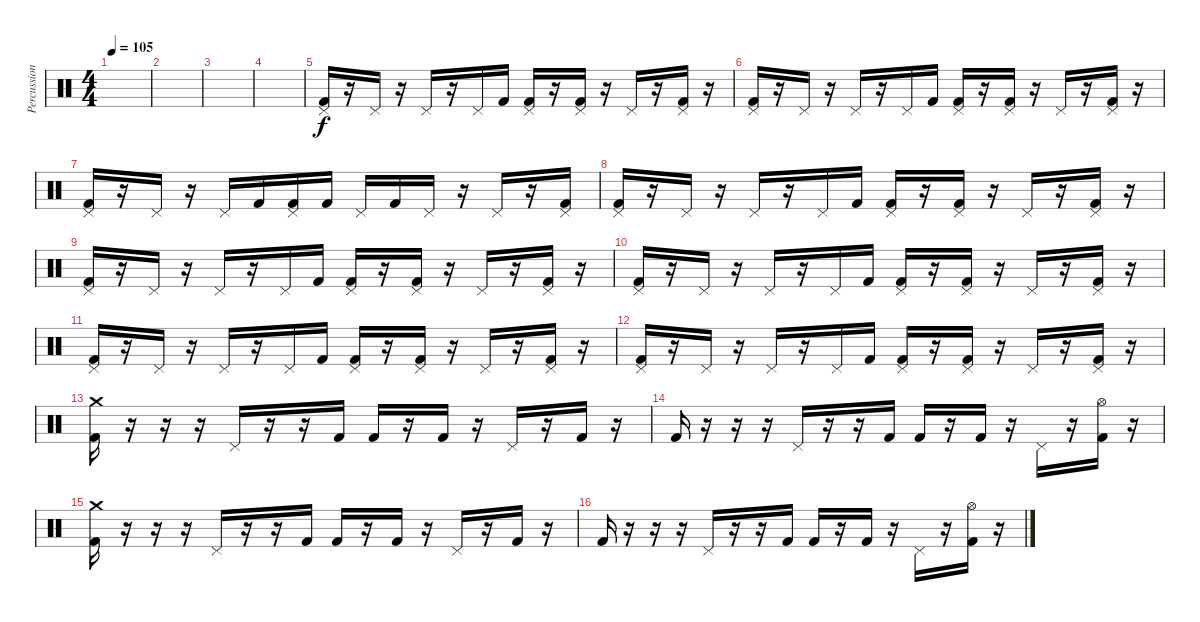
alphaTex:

\track ("Percussions" "Percussion") {instrument percussion}
\staff {score}
\articulation defaults
\ts (4 4)
\tempo 105
\clef neutral
\ks c
|
|
|
|
("Pedal Hi-Hat (hit)" "Kick (hit) 2").16 r.16 "Pedal Hi-Hat (hit)".16 r.16 "Pedal Hi-Hat (hit)".16 r.16 "Pedal Hi-Hat (hit)".16 "Kick (hit) 2".16 ("Pedal Hi-Hat (hit)" "Kick (hit) 2").16 r.16 ("Pedal Hi-Hat (hit)" "Kick (hit) 2").16 r.16 "Pedal Hi-Hat (hit)".16 r.16 ("Pedal Hi-Hat (hit)" "Kick (hit) 2").16 r.16 |
("Pedal Hi-Hat (hit)" "Kick (hit) 2").16 r.16 "Pedal Hi-Hat (hit)".16 r.16 "Pedal Hi-Hat (hit)".16 r.16 "Pedal Hi-Hat (hit)".16 "Kick (hit) 2".16 ("Pedal Hi-Hat (hit)" "Kick (hit) 2").16 r.16 ("Pedal Hi-Hat (hit)" "Kick (hit) 2").16 r.16 "Pedal Hi-Hat (hit)".16 r.16 ("Pedal Hi-Hat (hit)" "Kick (hit) 2").16 r.16 |
("Pedal Hi-Hat (hit)" "Kick (hit) 2").16 r.16 "Pedal Hi-Hat (hit)".16 r.16 "Pedal Hi-Hat (hit)".16 "Kick (hit) 2".16 ("Pedal Hi-Hat (hit)" "Kick (hit) 2").16 "Kick (hit) 2".16 "Pedal Hi-Hat (hit)".16 "Kick (hit) 2".16 "Pedal Hi-Hat (hit)".16 r.16 "Pedal Hi-Hat (hit)".16 r.16 ("Pedal Hi-Hat (hit)" "Kick (hit) 2").16 |
("Pedal Hi-Hat (hit)" "Kick (hit) 2").16 r.16 "Pedal Hi-Hat (hit)".16 r.16 "Pedal Hi-Hat (hit)".16 r.16 "Pedal Hi-Hat (hit)".16 "Kick (hit) 2".16 ("Pedal Hi-Hat (hit)" "Kick (hit) 2").16 r.16 ("Pedal Hi-Hat (hit)" "Kick (hit) 2").16 r.16 "Pedal Hi-Hat (hit)".16 r.16 ("Pedal Hi-Hat (hit)" "Kick (hit) 2").16 r.16 |
("Pedal Hi-Hat (hit)" "Kick (hit) 2").16 r.16 "Pedal Hi-Hat (hit)".16 r.16 "Pedal Hi-Hat (hit)".16 r.16 "Pedal Hi-Hat (hit)".16 "Kick (hit) 2".16 ("Pedal Hi-Hat (hit)" "Kick (hit) 2").16 r.16 ("Pedal Hi-Hat (hit)" "Kick (hit) 2").16 r.16 "Pedal Hi-Hat (hit)".16 r.16 ("Pedal Hi-Hat (hit)" "Kick (hit) 2").16 r.16 |
("Pedal Hi-Hat (hit)" "Kick (hit) 2").16 r.16 "Pedal Hi-Hat (hit)".16 r.16 "Pedal Hi-Hat (hit)".16 r.16 "Pedal Hi-Hat (hit)".16 "Kick (hit) 2".16 ("Pedal Hi-Hat (hit)" "Kick (hit) 2").16 r.16 ("Pedal Hi-Hat (hit)" "Kick (hit) 2").16 r.16 "Pedal Hi-Hat (hit)".16 r.16 ("Pedal Hi-Hat (hit)" "Kick (hit) 2").16 r.16 |
("Pedal Hi-Hat (hit)" "Kick (hit) 2").16 r.16 "Pedal Hi-Hat (hit)".16 r.16 "Pedal Hi-Hat (hit)".16 r.16 "Pedal Hi-Hat (hit)".16 "Kick (hit) 2".16 ("Pedal Hi-Hat (hit)" "Kick (hit) 2").16 r.16 ("Pedal Hi-Hat (hit)" "Kick (hit) 2").16 r.16 "Pedal Hi-Hat (hit)".16 r.16 ("Pedal Hi-Hat (hit)" "Kick (hit) 2").16 r.16 |
("Pedal Hi-Hat (hit)" "Kick (hit) 2").16 r.16 "Pedal Hi-Hat (hit)".16 r.16 "Pedal Hi-Hat (hit)".16 r.16 "Pedal Hi-Hat (hit)".16 "Kick (hit) 2".16 ("Pedal Hi-Hat (hit)" "Kick (hit) 2").16 r.16 ("Pedal Hi-Hat (hit)" "Kick (hit) 2").16 r.16 "Pedal Hi-Hat (hit)".16 r.16 ("Pedal Hi-Hat (hit)" "Kick (hit) 2").16 r.16 |
("Crash medium (hit)" "Kick (hit) 2").16 r.16 r.16 r.16 "Pedal Hi-Hat (hit)".16 r.16 r.16 "Kick (hit) 2".16 "Kick (hit) 2".16 r.16 "Kick (hit) 2".16 r.16 "Pedal Hi-Hat (hit)".16 r.16 "Kick (hit) 2".16 r.16 |
"Kick (hit) 2".16 r.16 r.16 r.16 "Pedal Hi-Hat (hit)".16 r.16 r.16 "Kick (hit) 2".16 "Kick (hit) 2".16 r.16 "Kick (hit) 2".16 r.16 "Pedal Hi-Hat (hit)".16 r.16 ("Hi-Hat (open)" "Kick (hit) 2").16 r.16 |
("Crash medium (hit)" "Kick (hit) 2").16 r.16 r.16 r.16 "Pedal Hi-Hat (hit)".16 r.16 r.16 "Kick (hit) 2".16 "Kick (hit) 2".16 r.16 "Kick (hit) 2".16 r.16 "Pedal Hi-Hat (hit)".16 r.16 "Kick (hit) 2".16 r.16 |
"Kick (hit) 2".16 r.16 r.16 r.16 "Pedal Hi-Hat (hit)".16 r.16 r.16 "Kick (hit) 2".16 "Kick (hit) 2".16 r.16 "Kick (hit) 2".16 r.16 "Pedal Hi-Hat (hit)".16 r.16 ("Hi-Hat (open)" "Kick (hit) 2").16 r.16
